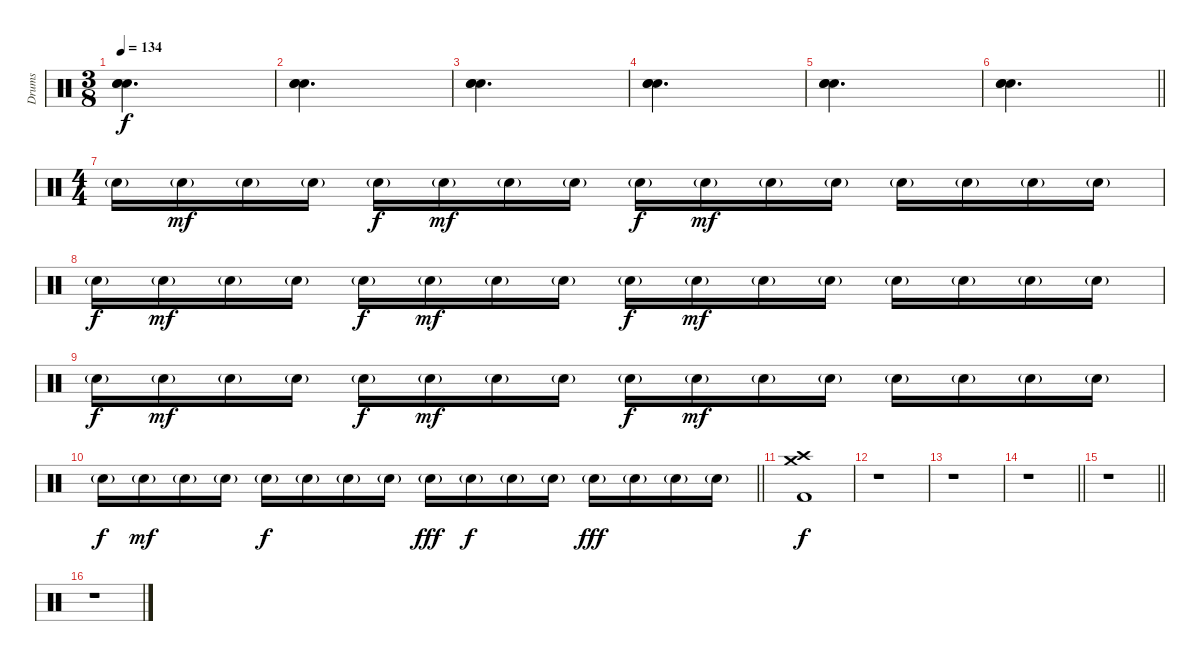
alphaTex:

\track ("Drums" "Drums") {instrument percussion}
\staff {score}
\articulation defaults
\ts (3 8)
\tempo 134
\clef neutral
\ks c
("Snare (hit)" "Snare (hit)" "Snare (hit)").4{d dy f} |
("Snare (hit)" "Snare (hit)" "Snare (hit)").4{d} |
("Snare (hit)" "Snare (hit)" "Snare (hit)").4{d} |
("Snare (hit)" "Snare (hit)" "Snare (hit)").4{d} |
("Snare (hit)" "Snare (hit)" "Snare (hit)").4{d} |
\barLineRight lightlight
("Snare (hit)" "Snare (hit)" "Snare (hit)").4{d} |
\ts (4 4)
"Snare (hit) 2"{g}.16 "Snare (hit) 2"{g}.16{dy mf} "Snare (hit) 2"{g}.16 "Snare (hit) 2"{g}.16 "Snare (hit) 2"{g}.16{dy f} "Snare (hit) 2"{g}.16{dy mf} "Snare (hit) 2"{g}.16 "Snare (hit) 2"{g}.16 "Snare (hit) 2"{g}.16{dy f} "Snare (hit) 2"{g}.16{dy mf} "Snare (hit) 2"{g}.16 "Snare (hit) 2"{g}.16 "Snare (hit) 2"{g}.16 "Snare (hit) 2"{g}.16 "Snare (hit) 2"{g}.16 "Snare (hit) 2"{g}.16 |
"Snare (hit) 2"{g}.16{dy f} "Snare (hit) 2"{g}.16{dy mf} "Snare (hit) 2"{g}.16 "Snare (hit) 2"{g}.16 "Snare (hit) 2"{g}.16{dy f} "Snare (hit) 2"{g}.16{dy mf} "Snare (hit) 2"{g}.16 "Snare (hit) 2"{g}.16 "Snare (hit) 2"{g}.16{dy f} "Snare (hit) 2"{g}.16{dy mf} "Snare (hit) 2"{g}.16 "Snare (hit) 2"{g}.16 "Snare (hit) 2"{g}.16 "Snare (hit) 2"{g}.16 "Snare (hit) 2"{g}.16 "Snare (hit) 2"{g}.16 |
"Snare (hit) 2"{g}.16{dy f} "Snare (hit) 2"{g}.16{dy mf} "Snare (hit) 2"{g}.16 "Snare (hit) 2"{g}.16 "Snare (hit) 2"{g}.16{dy f} "Snare (hit) 2"{g}.16{dy mf} "Snare (hit) 2"{g}.16 "Snare (hit) 2"{g}.16 "Snare (hit) 2"{g}.16{dy f} "Snare (hit) 2"{g}.16{dy mf} "Snare (hit) 2"{g}.16 "Snare (hit) 2"{g}.16 "Snare (hit) 2"{g}.16 "Snare (hit) 2"{g}.16 "Snare (hit) 2"{g}.16 "Snare (hit) 2"{g}.16 |
\barLineRight lightlight "Snare (hit) 2"{g}.16{dy f} "Snare (hit) 2"{g}.16{dy mf} "Snare (hit) 2"{g}.16 "Snare (hit) 2"{g}.16 "Snare (hit) 2"{g}.16{dy f} "Snare (hit) 2"{g}.16 "Snare (hit) 2"{g}.16 "Snare (hit) 2"{g}.16 "Snare (hit) 2"{g}.16{dy fff} "Snare (hit) 2"{g}.16{dy f} "Snare (hit) 2"{g}.16 "Snare (hit) 2"{g}.16 "Snare (hit) 2"{g}.16{dy fff} "Snare (hit) 2"{g}.16 "Snare (hit) 2"{g}.16 "Snare (hit) 2"{g}.16
|
("Crash high (hit)" "Crash medium (hit)" "Kick (hit) 2").1{dy f} |
r.1 |
r.1 |
\barLineRight lightlight
r.1 |
\barLineRight lightlight
r.1 |
r.1
